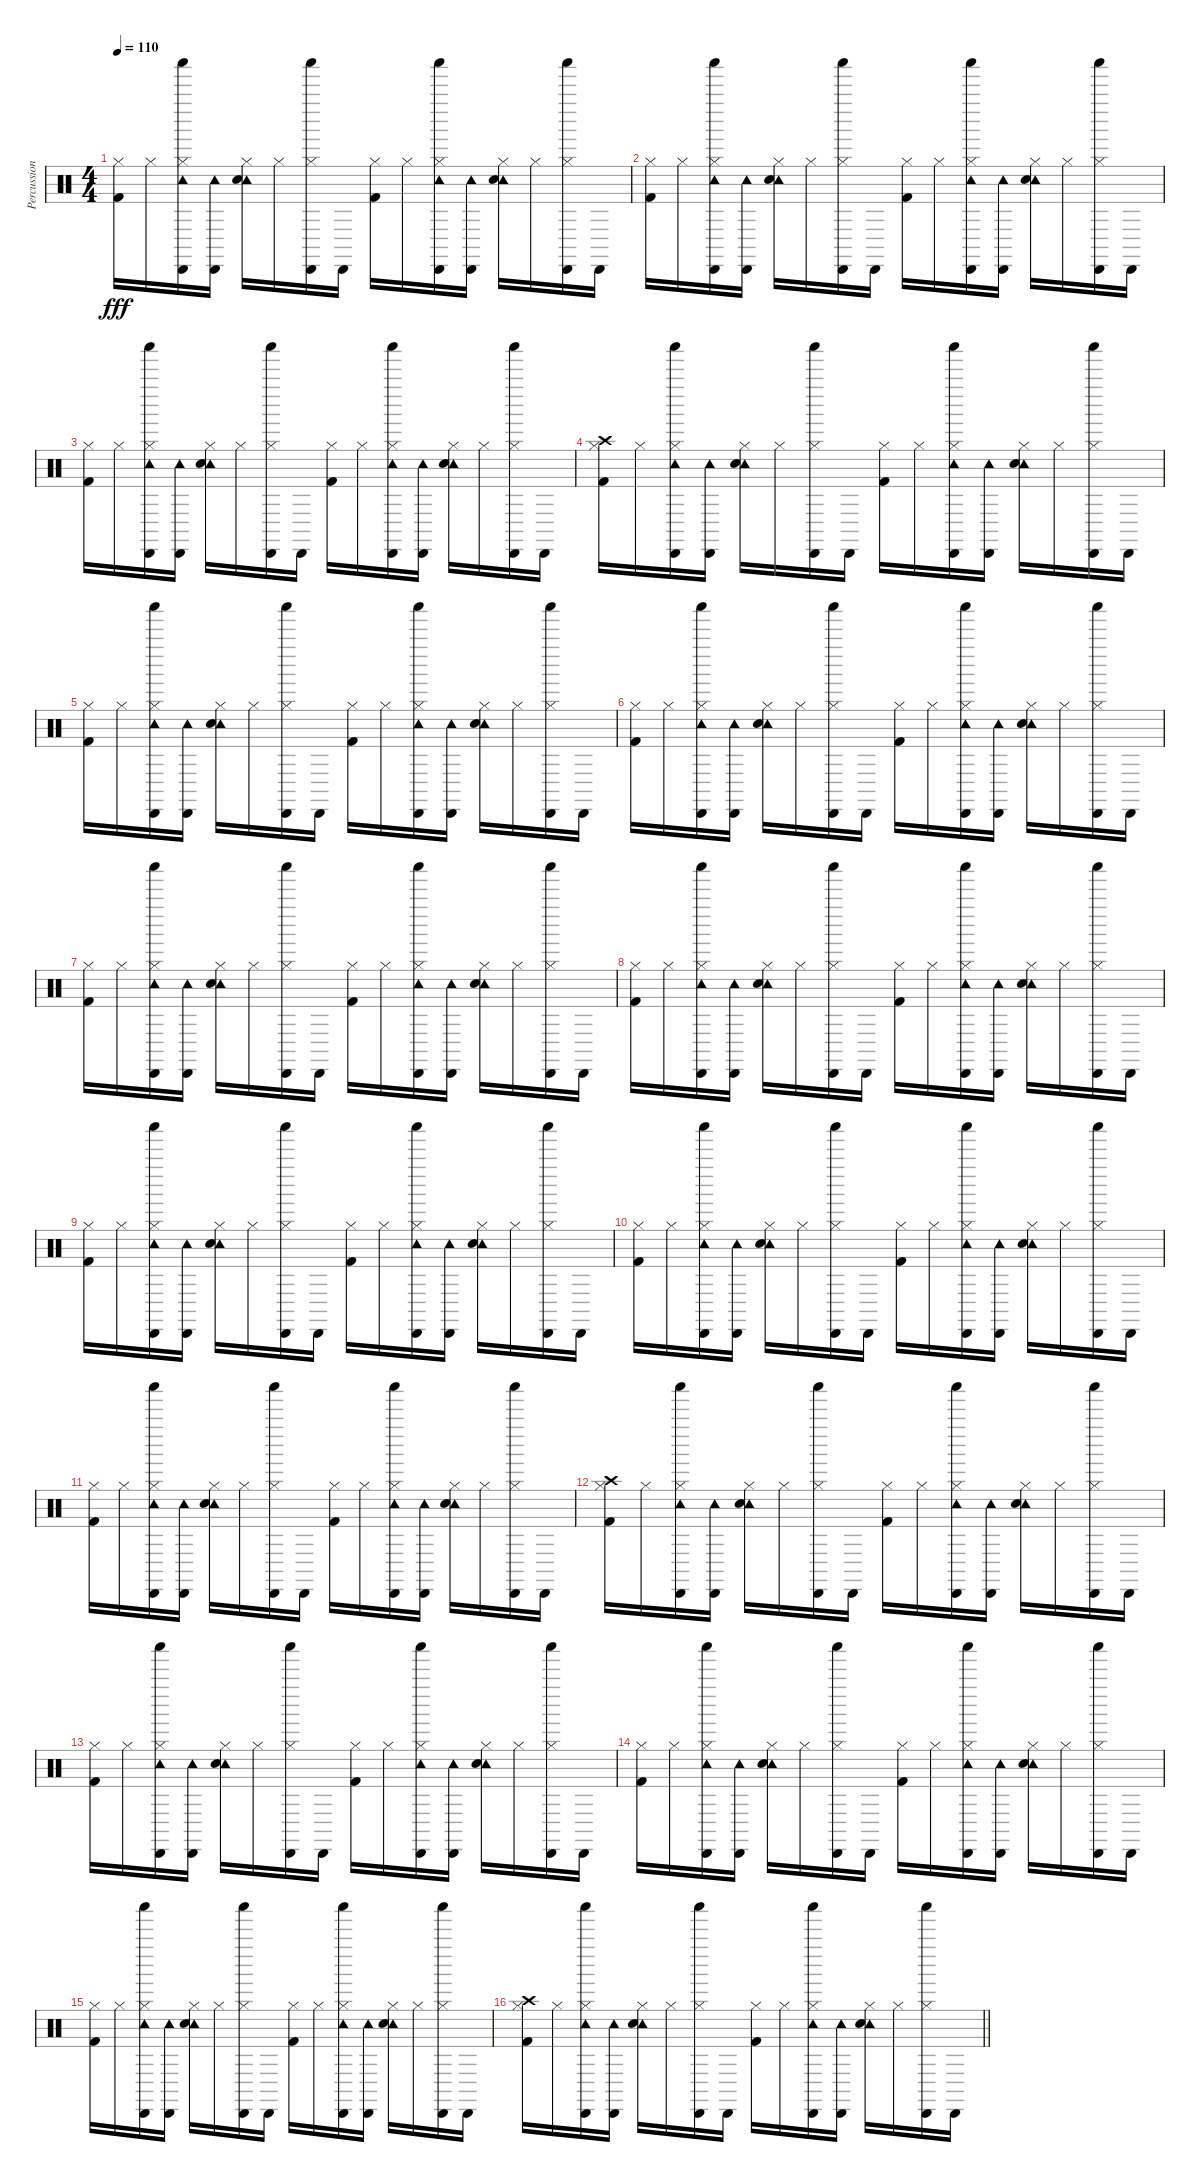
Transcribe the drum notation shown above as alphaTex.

\track ("Percussions" "Percussion") {instrument percussion}
\staff {score}
\articulation defaults
\ts (4 4)
\tempo 110
\clef neutral
\ks c
("Hi-Hat (closed)" "Kick (hit) 2").16{dy fff} "Hi-Hat (closed)".16 ("Hi-Hat (closed)" "Tambourine (hit)" "Cabasa (hit)" "Shaker (hit)").16 ("Tambourine (hit)" "Cabasa (hit)").16 ("Hi-Hat (closed)" "Tambourine (hit)" "Electric Snare (hit)").16 "Hi-Hat (closed)".16 ("Hi-Hat (closed)" "Cabasa (hit)" "Shaker (hit)").16 "Cabasa (hit)".16 ("Hi-Hat (closed)" "Kick (hit) 2").16 "Hi-Hat (closed)".16 ("Hi-Hat (closed)" "Tambourine (hit)" "Cabasa (hit)" "Shaker (hit)").16 ("Tambourine (hit)" "Cabasa (hit)").16 ("Hi-Hat (closed)" "Tambourine (hit)" "Electric Snare (hit)").16 "Hi-Hat (closed)".16 ("Hi-Hat (closed)" "Cabasa (hit)" "Shaker (hit)").16 "Cabasa (hit)".16 |
("Hi-Hat (closed)" "Kick (hit) 2").16 "Hi-Hat (closed)".16 ("Hi-Hat (closed)" "Tambourine (hit)" "Cabasa (hit)" "Shaker (hit)").16 ("Tambourine (hit)" "Cabasa (hit)").16 ("Hi-Hat (closed)" "Tambourine (hit)" "Electric Snare (hit)").16 "Hi-Hat (closed)".16 ("Hi-Hat (closed)" "Cabasa (hit)" "Shaker (hit)").16 "Cabasa (hit)".16 ("Hi-Hat (closed)" "Kick (hit) 2").16 "Hi-Hat (closed)".16 ("Hi-Hat (closed)" "Tambourine (hit)" "Cabasa (hit)" "Shaker (hit)").16 ("Tambourine (hit)" "Cabasa (hit)").16 ("Hi-Hat (closed)" "Tambourine (hit)" "Electric Snare (hit)").16 "Hi-Hat (closed)".16 ("Hi-Hat (closed)" "Cabasa (hit)" "Shaker (hit)").16 "Cabasa (hit)".16 |
("Hi-Hat (closed)" "Kick (hit) 2").16 "Hi-Hat (closed)".16 ("Hi-Hat (closed)" "Tambourine (hit)" "Cabasa (hit)" "Shaker (hit)").16 ("Tambourine (hit)" "Cabasa (hit)").16 ("Hi-Hat (closed)" "Tambourine (hit)" "Electric Snare (hit)").16 "Hi-Hat (closed)".16 ("Hi-Hat (closed)" "Cabasa (hit)" "Shaker (hit)").16 "Cabasa (hit)".16 ("Hi-Hat (closed)" "Kick (hit) 2").16 "Hi-Hat (closed)".16 ("Hi-Hat (closed)" "Tambourine (hit)" "Cabasa (hit)" "Shaker (hit)").16 ("Tambourine (hit)" "Cabasa (hit)").16 ("Hi-Hat (closed)" "Tambourine (hit)" "Electric Snare (hit)").16 "Hi-Hat (closed)".16 ("Hi-Hat (closed)" "Cabasa (hit)" "Shaker (hit)").16 "Cabasa (hit)".16 |
("Hi-Hat (closed)" "Crash high (hit)" "Kick (hit) 2").16 "Hi-Hat (closed)".16 ("Hi-Hat (closed)" "Tambourine (hit)" "Cabasa (hit)" "Shaker (hit)").16 ("Tambourine (hit)" "Cabasa (hit)").16 ("Hi-Hat (closed)" "Tambourine (hit)" "Electric Snare (hit)").16 "Hi-Hat (closed)".16 ("Hi-Hat (closed)" "Cabasa (hit)" "Shaker (hit)").16 "Cabasa (hit)".16 ("Hi-Hat (closed)" "Kick (hit) 2").16 "Hi-Hat (closed)".16 ("Hi-Hat (closed)" "Tambourine (hit)" "Cabasa (hit)" "Shaker (hit)").16 ("Tambourine (hit)" "Cabasa (hit)").16 ("Hi-Hat (closed)" "Tambourine (hit)" "Electric Snare (hit)").16 "Hi-Hat (closed)".16 ("Hi-Hat (closed)" "Cabasa (hit)" "Shaker (hit)").16 "Cabasa (hit)".16 |
("Hi-Hat (closed)" "Kick (hit) 2").16 "Hi-Hat (closed)".16 ("Hi-Hat (closed)" "Tambourine (hit)" "Cabasa (hit)" "Shaker (hit)").16 ("Tambourine (hit)" "Cabasa (hit)").16 ("Hi-Hat (closed)" "Tambourine (hit)" "Electric Snare (hit)").16 "Hi-Hat (closed)".16 ("Hi-Hat (closed)" "Cabasa (hit)" "Shaker (hit)").16 "Cabasa (hit)".16 ("Hi-Hat (closed)" "Kick (hit) 2").16 "Hi-Hat (closed)".16 ("Hi-Hat (closed)" "Tambourine (hit)" "Cabasa (hit)" "Shaker (hit)").16 ("Tambourine (hit)" "Cabasa (hit)").16 ("Hi-Hat (closed)" "Tambourine (hit)" "Electric Snare (hit)").16 "Hi-Hat (closed)".16 ("Hi-Hat (closed)" "Cabasa (hit)" "Shaker (hit)").16 "Cabasa (hit)".16 |
("Hi-Hat (closed)" "Kick (hit) 2").16 "Hi-Hat (closed)".16 ("Hi-Hat (closed)" "Tambourine (hit)" "Cabasa (hit)" "Shaker (hit)").16 ("Tambourine (hit)" "Cabasa (hit)").16 ("Hi-Hat (closed)" "Tambourine (hit)" "Electric Snare (hit)").16 "Hi-Hat (closed)".16 ("Hi-Hat (closed)" "Cabasa (hit)" "Shaker (hit)").16 "Cabasa (hit)".16 ("Hi-Hat (closed)" "Kick (hit) 2").16 "Hi-Hat (closed)".16 ("Hi-Hat (closed)" "Tambourine (hit)" "Cabasa (hit)" "Shaker (hit)").16 ("Tambourine (hit)" "Cabasa (hit)").16 ("Hi-Hat (closed)" "Tambourine (hit)" "Electric Snare (hit)").16 "Hi-Hat (closed)".16 ("Hi-Hat (closed)" "Cabasa (hit)" "Shaker (hit)").16 "Cabasa (hit)".16 |
("Hi-Hat (closed)" "Kick (hit) 2").16 "Hi-Hat (closed)".16 ("Hi-Hat (closed)" "Tambourine (hit)" "Cabasa (hit)" "Shaker (hit)").16 ("Tambourine (hit)" "Cabasa (hit)").16 ("Hi-Hat (closed)" "Tambourine (hit)" "Electric Snare (hit)").16 "Hi-Hat (closed)".16 ("Hi-Hat (closed)" "Cabasa (hit)" "Shaker (hit)").16 "Cabasa (hit)".16 ("Hi-Hat (closed)" "Kick (hit) 2").16 "Hi-Hat (closed)".16 ("Hi-Hat (closed)" "Tambourine (hit)" "Cabasa (hit)" "Shaker (hit)").16 ("Tambourine (hit)" "Cabasa (hit)").16 ("Hi-Hat (closed)" "Tambourine (hit)" "Electric Snare (hit)").16 "Hi-Hat (closed)".16 ("Hi-Hat (closed)" "Cabasa (hit)" "Shaker (hit)").16 "Cabasa (hit)".16 |
("Hi-Hat (closed)" "Kick (hit) 2").16 "Hi-Hat (closed)".16 ("Hi-Hat (closed)" "Tambourine (hit)" "Cabasa (hit)" "Shaker (hit)").16 ("Tambourine (hit)" "Cabasa (hit)").16 ("Hi-Hat (closed)" "Tambourine (hit)" "Electric Snare (hit)").16 "Hi-Hat (closed)".16 ("Hi-Hat (closed)" "Cabasa (hit)" "Shaker (hit)").16 "Cabasa (hit)".16 ("Hi-Hat (closed)" "Kick (hit) 2").16 "Hi-Hat (closed)".16 ("Hi-Hat (closed)" "Tambourine (hit)" "Cabasa (hit)" "Shaker (hit)").16 ("Tambourine (hit)" "Cabasa (hit)").16 ("Hi-Hat (closed)" "Tambourine (hit)" "Electric Snare (hit)").16 "Hi-Hat (closed)".16 ("Hi-Hat (closed)" "Cabasa (hit)" "Shaker (hit)").16 "Cabasa (hit)".16 |
("Hi-Hat (closed)" "Kick (hit) 2").16 "Hi-Hat (closed)".16 ("Hi-Hat (closed)" "Tambourine (hit)" "Cabasa (hit)" "Shaker (hit)").16 ("Tambourine (hit)" "Cabasa (hit)").16 ("Hi-Hat (closed)" "Tambourine (hit)" "Electric Snare (hit)").16 "Hi-Hat (closed)".16 ("Hi-Hat (closed)" "Cabasa (hit)" "Shaker (hit)").16 "Cabasa (hit)".16 ("Hi-Hat (closed)" "Kick (hit) 2").16 "Hi-Hat (closed)".16 ("Hi-Hat (closed)" "Tambourine (hit)" "Cabasa (hit)" "Shaker (hit)").16 ("Tambourine (hit)" "Cabasa (hit)").16 ("Hi-Hat (closed)" "Tambourine (hit)" "Electric Snare (hit)").16 "Hi-Hat (closed)".16 ("Hi-Hat (closed)" "Cabasa (hit)" "Shaker (hit)").16 "Cabasa (hit)".16 |
("Hi-Hat (closed)" "Kick (hit) 2").16 "Hi-Hat (closed)".16 ("Hi-Hat (closed)" "Tambourine (hit)" "Cabasa (hit)" "Shaker (hit)").16 ("Tambourine (hit)" "Cabasa (hit)").16 ("Hi-Hat (closed)" "Tambourine (hit)" "Electric Snare (hit)").16 "Hi-Hat (closed)".16 ("Hi-Hat (closed)" "Cabasa (hit)" "Shaker (hit)").16 "Cabasa (hit)".16 ("Hi-Hat (closed)" "Kick (hit) 2").16 "Hi-Hat (closed)".16 ("Hi-Hat (closed)" "Tambourine (hit)" "Cabasa (hit)" "Shaker (hit)").16 ("Tambourine (hit)" "Cabasa (hit)").16 ("Hi-Hat (closed)" "Tambourine (hit)" "Electric Snare (hit)").16 "Hi-Hat (closed)".16 ("Hi-Hat (closed)" "Cabasa (hit)" "Shaker (hit)").16 "Cabasa (hit)".16 |
("Hi-Hat (closed)" "Kick (hit) 2").16 "Hi-Hat (closed)".16 ("Hi-Hat (closed)" "Tambourine (hit)" "Cabasa (hit)" "Shaker (hit)").16 ("Tambourine (hit)" "Cabasa (hit)").16 ("Hi-Hat (closed)" "Tambourine (hit)" "Electric Snare (hit)").16 "Hi-Hat (closed)".16 ("Hi-Hat (closed)" "Cabasa (hit)" "Shaker (hit)").16 "Cabasa (hit)".16 ("Hi-Hat (closed)" "Kick (hit) 2").16 "Hi-Hat (closed)".16 ("Hi-Hat (closed)" "Tambourine (hit)" "Cabasa (hit)" "Shaker (hit)").16 ("Tambourine (hit)" "Cabasa (hit)").16 ("Hi-Hat (closed)" "Tambourine (hit)" "Electric Snare (hit)").16 "Hi-Hat (closed)".16 ("Hi-Hat (closed)" "Cabasa (hit)" "Shaker (hit)").16 "Cabasa (hit)".16 |
("Hi-Hat (closed)" "Crash high (hit)" "Kick (hit) 2").16 "Hi-Hat (closed)".16 ("Hi-Hat (closed)" "Tambourine (hit)" "Cabasa (hit)" "Shaker (hit)").16 ("Tambourine (hit)" "Cabasa (hit)").16 ("Hi-Hat (closed)" "Tambourine (hit)" "Electric Snare (hit)").16 "Hi-Hat (closed)".16 ("Hi-Hat (closed)" "Cabasa (hit)" "Shaker (hit)").16 "Cabasa (hit)".16 ("Hi-Hat (closed)" "Kick (hit) 2").16 "Hi-Hat (closed)".16 ("Hi-Hat (closed)" "Tambourine (hit)" "Cabasa (hit)" "Shaker (hit)").16 ("Tambourine (hit)" "Cabasa (hit)").16 ("Hi-Hat (closed)" "Tambourine (hit)" "Electric Snare (hit)").16 "Hi-Hat (closed)".16 ("Hi-Hat (closed)" "Cabasa (hit)" "Shaker (hit)").16 "Cabasa (hit)".16 |
("Hi-Hat (closed)" "Kick (hit) 2").16 "Hi-Hat (closed)".16 ("Hi-Hat (closed)" "Tambourine (hit)" "Cabasa (hit)" "Shaker (hit)").16 ("Tambourine (hit)" "Cabasa (hit)").16 ("Hi-Hat (closed)" "Tambourine (hit)" "Electric Snare (hit)").16 "Hi-Hat (closed)".16 ("Hi-Hat (closed)" "Cabasa (hit)" "Shaker (hit)").16 "Cabasa (hit)".16 ("Hi-Hat (closed)" "Kick (hit) 2").16 "Hi-Hat (closed)".16 ("Hi-Hat (closed)" "Tambourine (hit)" "Cabasa (hit)" "Shaker (hit)").16 ("Tambourine (hit)" "Cabasa (hit)").16 ("Hi-Hat (closed)" "Tambourine (hit)" "Electric Snare (hit)").16 "Hi-Hat (closed)".16 ("Hi-Hat (closed)" "Cabasa (hit)" "Shaker (hit)").16 "Cabasa (hit)".16 |
("Hi-Hat (closed)" "Kick (hit) 2").16 "Hi-Hat (closed)".16 ("Hi-Hat (closed)" "Tambourine (hit)" "Cabasa (hit)" "Shaker (hit)").16 ("Tambourine (hit)" "Cabasa (hit)").16 ("Hi-Hat (closed)" "Tambourine (hit)" "Electric Snare (hit)").16 "Hi-Hat (closed)".16 ("Hi-Hat (closed)" "Cabasa (hit)" "Shaker (hit)").16 "Cabasa (hit)".16 ("Hi-Hat (closed)" "Kick (hit) 2").16 "Hi-Hat (closed)".16 ("Hi-Hat (closed)" "Tambourine (hit)" "Cabasa (hit)" "Shaker (hit)").16 ("Tambourine (hit)" "Cabasa (hit)").16 ("Hi-Hat (closed)" "Tambourine (hit)" "Electric Snare (hit)").16 "Hi-Hat (closed)".16 ("Hi-Hat (closed)" "Cabasa (hit)" "Shaker (hit)").16 "Cabasa (hit)".16 |
("Hi-Hat (closed)" "Kick (hit) 2").16 "Hi-Hat (closed)".16 ("Hi-Hat (closed)" "Tambourine (hit)" "Cabasa (hit)" "Shaker (hit)").16 ("Tambourine (hit)" "Cabasa (hit)").16 ("Hi-Hat (closed)" "Tambourine (hit)" "Electric Snare (hit)").16 "Hi-Hat (closed)".16 ("Hi-Hat (closed)" "Cabasa (hit)" "Shaker (hit)").16 "Cabasa (hit)".16 ("Hi-Hat (closed)" "Kick (hit) 2").16 "Hi-Hat (closed)".16 ("Hi-Hat (closed)" "Tambourine (hit)" "Cabasa (hit)" "Shaker (hit)").16 ("Tambourine (hit)" "Cabasa (hit)").16 ("Hi-Hat (closed)" "Tambourine (hit)" "Electric Snare (hit)").16 "Hi-Hat (closed)".16 ("Hi-Hat (closed)" "Cabasa (hit)" "Shaker (hit)").16 "Cabasa (hit)".16 |
\barLineRight lightlight
("Hi-Hat (closed)" "Crash high (hit)" "Kick (hit) 2").16 "Hi-Hat (closed)".16 ("Hi-Hat (closed)" "Tambourine (hit)" "Cabasa (hit)" "Shaker (hit)").16 ("Tambourine (hit)" "Cabasa (hit)").16 ("Hi-Hat (closed)" "Tambourine (hit)" "Electric Snare (hit)").16 "Hi-Hat (closed)".16 ("Hi-Hat (closed)" "Cabasa (hit)" "Shaker (hit)").16 "Cabasa (hit)".16 ("Hi-Hat (closed)" "Kick (hit) 2").16 "Hi-Hat (closed)".16 ("Hi-Hat (closed)" "Tambourine (hit)" "Cabasa (hit)" "Shaker (hit)").16 ("Tambourine (hit)" "Cabasa (hit)").16 ("Hi-Hat (closed)" "Tambourine (hit)" "Electric Snare (hit)").16 "Hi-Hat (closed)".16 ("Hi-Hat (closed)" "Cabasa (hit)" "Shaker (hit)").16 "Cabasa (hit)".16
